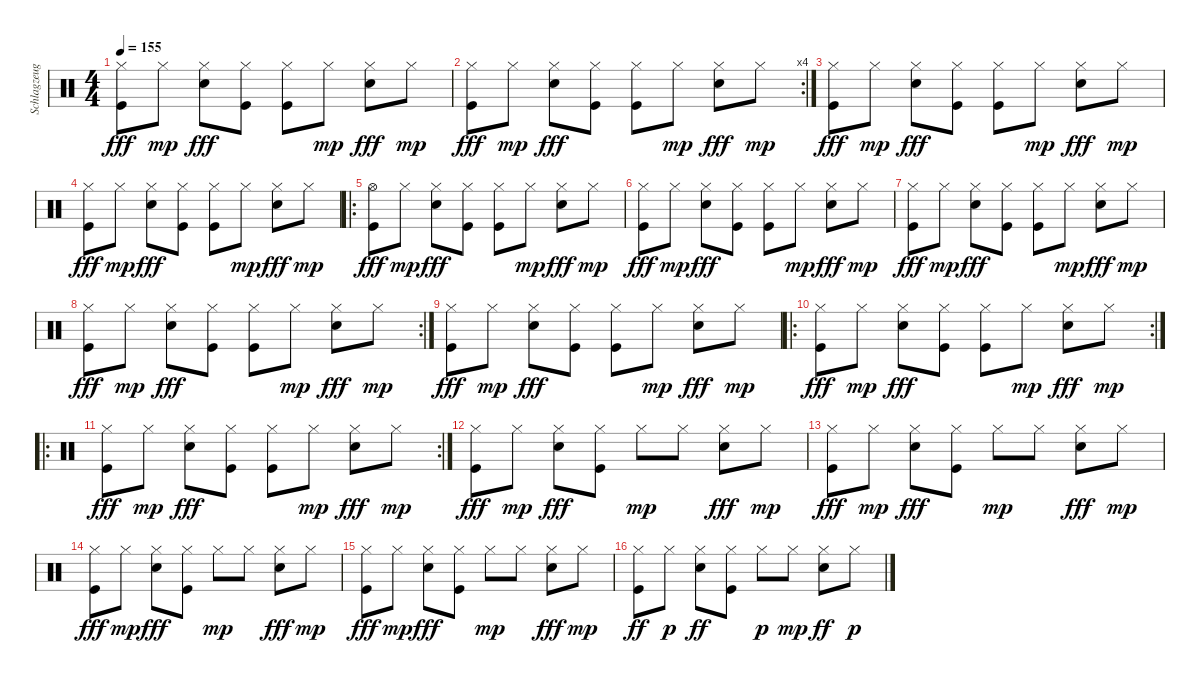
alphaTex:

\track ("Schlagzeug" "Schlagzeug") {instrument percussion}
\staff {score}
\articulation defaults
\ts (4 4)
\tempo 155
\clef neutral
\ks c
("Hi-Hat (closed)" "Kick (hit)").8{dy fff} "Hi-Hat (closed)".8{dy mp} ("Hi-Hat (closed)" "Electric Snare (hit)").8{dy fff} ("Hi-Hat (closed)" "Kick (hit)").8 ("Hi-Hat (closed)" "Kick (hit)").8 "Hi-Hat (closed)".8{dy mp} ("Hi-Hat (closed)" "Electric Snare (hit)").8{dy fff} "Hi-Hat (closed)".8{dy mp} |
\rc 4
("Hi-Hat (closed)" "Kick (hit)").8{dy fff} "Hi-Hat (closed)".8{dy mp} ("Hi-Hat (closed)" "Electric Snare (hit)").8{dy fff} ("Hi-Hat (closed)" "Kick (hit)").8 ("Hi-Hat (closed)" "Kick (hit)").8 "Hi-Hat (closed)".8{dy mp} ("Hi-Hat (closed)" "Electric Snare (hit)").8{dy fff} "Hi-Hat (closed)".8{dy mp} |
("Hi-Hat (closed)" "Kick (hit)").8{dy fff} "Hi-Hat (closed)".8{dy mp} ("Hi-Hat (closed)" "Electric Snare (hit)").8{dy fff} ("Hi-Hat (closed)" "Kick (hit)").8 ("Hi-Hat (closed)" "Kick (hit)").8 "Hi-Hat (closed)".8{dy mp} ("Hi-Hat (closed)" "Electric Snare (hit)").8{dy fff} "Hi-Hat (closed)".8{dy mp} |
("Hi-Hat (closed)" "Kick (hit)").8{dy fff} "Hi-Hat (closed)".8{dy mp} ("Hi-Hat (closed)" "Electric Snare (hit)").8{dy fff} ("Hi-Hat (closed)" "Kick (hit)").8 ("Hi-Hat (closed)" "Kick (hit)").8 "Hi-Hat (closed)".8{dy mp} ("Hi-Hat (closed)" "Electric Snare (hit)").8{dy fff} "Hi-Hat (closed)".8{dy mp} |
\ro
("Hi-Hat (open)" "Kick (hit)").8{dy fff} "Hi-Hat (closed)".8{dy mp} ("Hi-Hat (closed)" "Electric Snare (hit)").8{dy fff} ("Hi-Hat (closed)" "Kick (hit)").8 ("Hi-Hat (closed)" "Kick (hit)").8 "Hi-Hat (closed)".8{dy mp} ("Hi-Hat (closed)" "Electric Snare (hit)").8{dy fff} "Hi-Hat (closed)".8{dy mp} |
("Hi-Hat (closed)" "Kick (hit)").8{dy fff} "Hi-Hat (closed)".8{dy mp} ("Hi-Hat (closed)" "Electric Snare (hit)").8{dy fff} ("Hi-Hat (closed)" "Kick (hit)").8 ("Hi-Hat (closed)" "Kick (hit)").8 "Hi-Hat (closed)".8{dy mp} ("Hi-Hat (closed)" "Electric Snare (hit)").8{dy fff} "Hi-Hat (closed)".8{dy mp} |
("Hi-Hat (closed)" "Kick (hit)").8{dy fff} "Hi-Hat (closed)".8{dy mp} ("Hi-Hat (closed)" "Electric Snare (hit)").8{dy fff} ("Hi-Hat (closed)" "Kick (hit)").8 ("Hi-Hat (closed)" "Kick (hit)").8 "Hi-Hat (closed)".8{dy mp} ("Hi-Hat (closed)" "Electric Snare (hit)").8{dy fff} "Hi-Hat (closed)".8{dy mp} |
\rc 2
("Hi-Hat (closed)" "Kick (hit)").8{dy fff} "Hi-Hat (closed)".8{dy mp} ("Hi-Hat (closed)" "Electric Snare (hit)").8{dy fff} ("Hi-Hat (closed)" "Kick (hit)").8 ("Hi-Hat (closed)" "Kick (hit)").8 "Hi-Hat (closed)".8{dy mp} ("Hi-Hat (closed)" "Electric Snare (hit)").8{dy fff} "Hi-Hat (closed)".8{dy mp} |
("Hi-Hat (closed)" "Kick (hit)").8{dy fff} "Hi-Hat (closed)".8{dy mp} ("Hi-Hat (closed)" "Electric Snare (hit)").8{dy fff} ("Hi-Hat (closed)" "Kick (hit)").8 ("Hi-Hat (closed)" "Kick (hit)").8 "Hi-Hat (closed)".8{dy mp} ("Hi-Hat (closed)" "Electric Snare (hit)").8{dy fff} "Hi-Hat (closed)".8{dy mp} |
\ro
\rc 2
("Hi-Hat (closed)" "Kick (hit)").8{dy fff} "Hi-Hat (closed)".8{dy mp} ("Hi-Hat (closed)" "Electric Snare (hit)").8{dy fff} ("Hi-Hat (closed)" "Kick (hit)").8 ("Hi-Hat (closed)" "Kick (hit)").8 "Hi-Hat (closed)".8{dy mp} ("Hi-Hat (closed)" "Electric Snare (hit)").8{dy fff} "Hi-Hat (closed)".8{dy mp} |
\ro
\rc 2
("Hi-Hat (closed)" "Kick (hit)").8{dy fff} "Hi-Hat (closed)".8{dy mp} ("Hi-Hat (closed)" "Electric Snare (hit)").8{dy fff} ("Hi-Hat (closed)" "Kick (hit)").8 ("Hi-Hat (closed)" "Kick (hit)").8 "Hi-Hat (closed)".8{dy mp} ("Hi-Hat (closed)" "Electric Snare (hit)").8{dy fff} "Hi-Hat (closed)".8{dy mp} |
("Hi-Hat (closed)" "Kick (hit)").8{dy fff} "Hi-Hat (closed)".8{dy mp} ("Hi-Hat (closed)" "Electric Snare (hit)").8{dy fff} ("Hi-Hat (closed)" "Kick (hit)").8 "Hi-Hat (closed)".8{dy mp} "Hi-Hat (closed)".8 ("Hi-Hat (closed)" "Electric Snare (hit)").8{dy fff} "Hi-Hat (closed)".8{dy mp} |
("Hi-Hat (closed)" "Kick (hit)").8{dy fff} "Hi-Hat (closed)".8{dy mp} ("Hi-Hat (closed)" "Electric Snare (hit)").8{dy fff} ("Hi-Hat (closed)" "Kick (hit)").8 "Hi-Hat (closed)".8{dy mp} "Hi-Hat (closed)".8 ("Hi-Hat (closed)" "Electric Snare (hit)").8{dy fff} "Hi-Hat (closed)".8{dy mp} |
("Hi-Hat (closed)" "Kick (hit)").8{dy fff} "Hi-Hat (closed)".8{dy mp} ("Hi-Hat (closed)" "Electric Snare (hit)").8{dy fff} ("Hi-Hat (closed)" "Kick (hit)").8 "Hi-Hat (closed)".8{dy mp} "Hi-Hat (closed)".8 ("Hi-Hat (closed)" "Electric Snare (hit)").8{dy fff} "Hi-Hat (closed)".8{dy mp} |
("Hi-Hat (closed)" "Kick (hit)").8{dy fff} "Hi-Hat (closed)".8{dy mp} ("Hi-Hat (closed)" "Electric Snare (hit)").8{dy fff} ("Hi-Hat (closed)" "Kick (hit)").8 "Hi-Hat (closed)".8{dy mp} "Hi-Hat (closed)".8 ("Hi-Hat (closed)" "Electric Snare (hit)").8{dy fff} "Hi-Hat (closed)".8{dy mp} |
("Hi-Hat (closed)" "Kick (hit)").8{dy ff} "Hi-Hat (closed)".8{dy p} ("Hi-Hat (closed)" "Electric Snare (hit)").8{dy ff} ("Hi-Hat (closed)" "Kick (hit)").8 "Hi-Hat (closed)".8{dy p} "Hi-Hat (closed)".8{dy mp} ("Hi-Hat (closed)" "Electric Snare (hit)").8{dy ff} "Hi-Hat (closed)".8{dy p}
